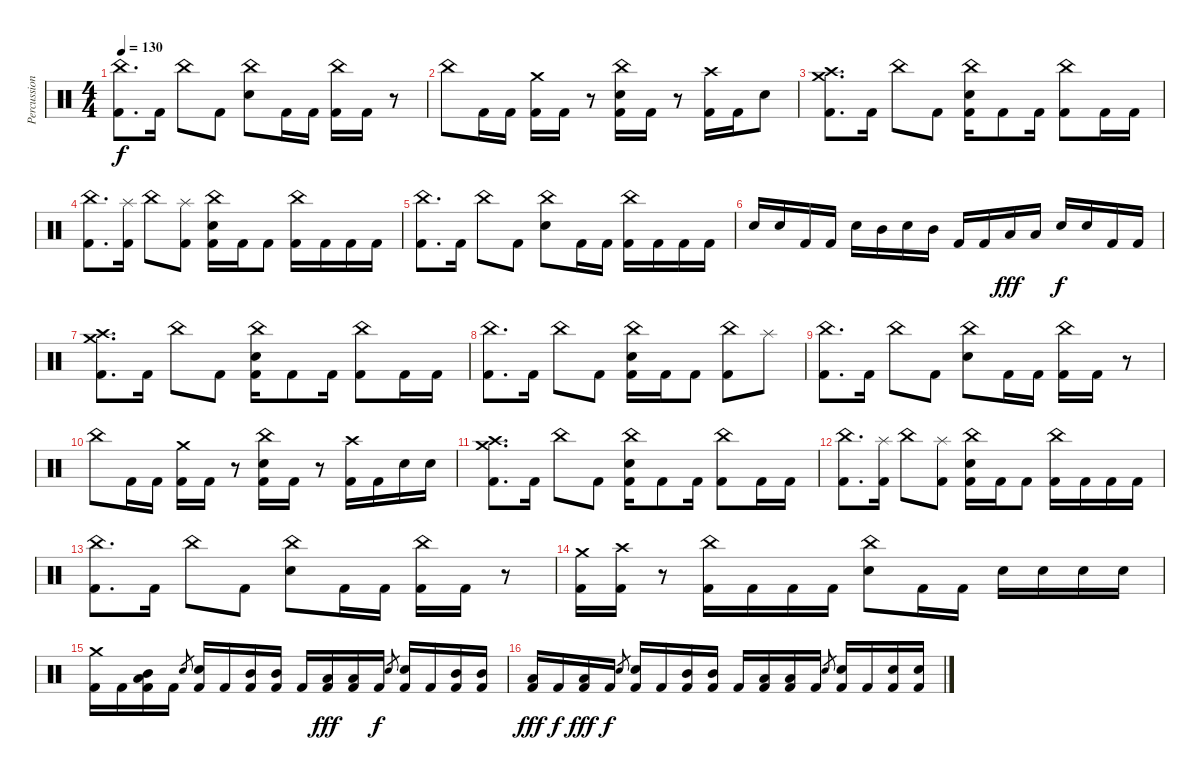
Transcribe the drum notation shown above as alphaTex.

\track ("Percussion" "Percussion") {instrument percussion}
\staff {score}
\articulation defaults
\ts (4 4)
\tempo 130
\clef neutral
\ks c
("China (hit)" "Kick (hit) 2").8{d dy f} "Kick (hit) 2".16 "China (hit)".8 "Kick (hit) 2".8 ("China (hit)" "Electric Snare (hit)").8 "Kick (hit) 2".16 "Kick (hit) 2".16 ("China (hit)" "Kick (hit) 2").16 "Kick (hit) 2".16 r.8 |
"China (hit)".8 "Kick (hit) 2".16 "Kick (hit) 2".16 ("Crash medium (hit)" "Kick (hit) 2").16 "Kick (hit) 2".16 r.8 ("China (hit)" "Electric Snare (hit)" "Kick (hit) 2").16 "Kick (hit) 2".16 r.8 ("Crash high (hit)" "Kick (hit) 2").16 "Kick (hit) 2".16 "Electric Snare (hit)".8 |
("Crash medium (hit)" "Crash high (hit)" "Kick (hit) 2").8{d} "Kick (hit) 2".16 "China (hit)".8 "Kick (hit) 2".8 ("China (hit)" "Electric Snare (hit)" "Kick (hit) 2").16 "Kick (hit) 2".8 "Kick (hit) 2".16 ("China (hit)" "Kick (hit) 2").8 "Kick (hit) 2".16 "Kick (hit) 2".16 |
("China (hit)" "Kick (hit) 2").8{d} ("Splash (hit)" "Kick (hit) 2").16 "China (hit)".8 ("Splash (hit)" "Kick (hit) 2").8 ("China (hit)" "Electric Snare (hit)" "Kick (hit) 2").16 "Kick (hit) 2".16 "Kick (hit) 2".8 ("China (hit)" "Kick (hit) 2").16 "Kick (hit) 2".16 "Kick (hit) 2".16 "Kick (hit) 2".16 |
("China (hit)" "Kick (hit) 2").8{d} "Kick (hit) 2".16 "China (hit)".8 "Kick (hit) 2".8 ("China (hit)" "Electric Snare (hit)").8 "Kick (hit) 2".16 "Kick (hit) 2".16 ("China (hit)" "Kick (hit) 2").16 "Kick (hit) 2".16 "Kick (hit) 2".16 "Kick (hit) 2".16 |
"Electric Snare (hit)".16 "Electric Snare (hit)".16 "Kick (hit) 2".16 "Kick (hit) 2".16 "Electric Snare (hit)".16 "Mid Tom (hit)".16 "Electric Snare (hit)".16 "Mid Tom (hit)".16 "Kick (hit) 2".16 "Kick (hit) 2".16 "Low Tom (hit)".16{dy fff} "Low Tom (hit)".16 "Electric Snare (hit)".16{dy f} "Electric Snare (hit)".16 "Kick (hit) 2".16 "Kick (hit) 2".16 |
("Crash medium (hit)" "Crash high (hit)" "Kick (hit) 2").8{d} "Kick (hit) 2".16 "China (hit)".8 "Kick (hit) 2".8 ("China (hit)" "Electric Snare (hit)" "Kick (hit) 2").16 "Kick (hit) 2".8 "Kick (hit) 2".16 ("China (hit)" "Kick (hit) 2").8 "Kick (hit) 2".16 "Kick (hit) 2".16 |
("China (hit)" "Kick (hit) 2").8{d} "Kick (hit) 2".16 "China (hit)".8 "Kick (hit) 2".8 ("China (hit)" "Electric Snare (hit)" "Kick (hit) 2").16 "Kick (hit) 2".16 "Kick (hit) 2".8 ("China (hit)" "Kick (hit) 2").8 "Splash (hit)".8 |
("China (hit)" "Kick (hit) 2").8{d} "Kick (hit) 2".16 "China (hit)".8 "Kick (hit) 2".8 ("China (hit)" "Electric Snare (hit)").8 "Kick (hit) 2".16 "Kick (hit) 2".16 ("China (hit)" "Kick (hit) 2").16 "Kick (hit) 2".16 r.8 |
"China (hit)".8 "Kick (hit) 2".16 "Kick (hit) 2".16 ("Crash medium (hit)" "Kick (hit) 2").16 "Kick (hit) 2".16 r.8 ("China (hit)" "Electric Snare (hit)" "Kick (hit) 2").16 "Kick (hit) 2".16 r.8 ("Crash high (hit)" "Kick (hit) 2").16 "Kick (hit) 2".16 "Electric Snare (hit)".16 "Electric Snare (hit)".16 |
("Crash medium (hit)" "Crash high (hit)" "Kick (hit) 2").8{d} "Kick (hit) 2".16 "China (hit)".8 "Kick (hit) 2".8 ("China (hit)" "Electric Snare (hit)" "Kick (hit) 2").16 "Kick (hit) 2".8 "Kick (hit) 2".16 ("China (hit)" "Kick (hit) 2").8 "Kick (hit) 2".16 "Kick (hit) 2".16 |
("China (hit)" "Kick (hit) 2").8{d} ("Splash (hit)" "Kick (hit) 2").16 "China (hit)".8 ("Splash (hit)" "Kick (hit) 2").8 ("China (hit)" "Electric Snare (hit)" "Kick (hit) 2").16 "Kick (hit) 2".16 "Kick (hit) 2".8 ("China (hit)" "Kick (hit) 2").16 "Kick (hit) 2".16 "Kick (hit) 2".16 "Kick (hit) 2".16 |
("China (hit)" "Kick (hit) 2").8{d} "Kick (hit) 2".16 "China (hit)".8 "Kick (hit) 2".8 ("China (hit)" "Electric Snare (hit)").8 "Kick (hit) 2".16 "Kick (hit) 2".16 ("China (hit)" "Kick (hit) 2").16 "Kick (hit) 2".16 r.8 |
("Crash medium (hit)" "Kick (hit) 2").16 ("Crash high (hit)" "Kick (hit) 2").16 r.8 ("China (hit)" "Kick (hit) 2").16 "Kick (hit) 2".16 "Kick (hit) 2".16 "Kick (hit) 2".16 ("China (hit)" "Electric Snare (hit)").8 "Kick (hit) 2".16 "Kick (hit) 2".16 "Electric Snare (hit)".16 "Electric Snare (hit)".16 "Electric Snare (hit)".16 "Electric Snare (hit)".16 |
("Crash medium (hit)" "Kick (hit) 2").16 "Kick (hit) 2".16 ("Mid Tom (hit)" "Low Tom (hit)" "Kick (hit) 2").16 "Kick (hit) 2".16 "Electric Snare (hit)".8{gr} ("Electric Snare (hit)" "Kick (hit) 2").16 "Kick (hit) 2".16 ("Mid Tom (hit)" "Kick (hit) 2").16 ("Mid Tom (hit)" "Kick (hit) 2").16 "Kick (hit) 2".16 ("Low Tom (hit)" "Kick (hit) 2").16{dy fff} ("Low Tom (hit)" "Kick (hit) 2").16 "Kick (hit) 2".16{dy f} "Electric Snare (hit)".8{gr} ("Electric Snare (hit)" "Kick (hit) 2").16 "Kick (hit) 2".16 ("Mid Tom (hit)" "Kick (hit) 2").16 ("Mid Tom (hit)" "Kick (hit) 2").16 |
("Low Tom (hit)" "Kick (hit) 2").16{dy fff} "Kick (hit) 2".16{dy f} ("Low Tom (hit)" "Kick (hit) 2").16{dy fff} "Kick (hit) 2".16{dy f} "Electric Snare (hit)".8{gr} ("Electric Snare (hit)" "Kick (hit) 2").16 "Kick (hit) 2".16 ("Mid Tom (hit)" "Kick (hit) 2").16 ("Mid Tom (hit)" "Kick (hit) 2").16 "Kick (hit) 2".16 ("Low Tom (hit)" "Kick (hit) 2").16 ("Low Tom (hit)" "Kick (hit) 2").16 "Kick (hit) 2".16 "Electric Snare (hit)".8{gr} ("Electric Snare (hit)" "Kick (hit) 2").16 "Kick (hit) 2".16 ("Electric Snare (hit)" "Kick (hit) 2").16 ("Electric Snare (hit)" "Kick (hit) 2").16
